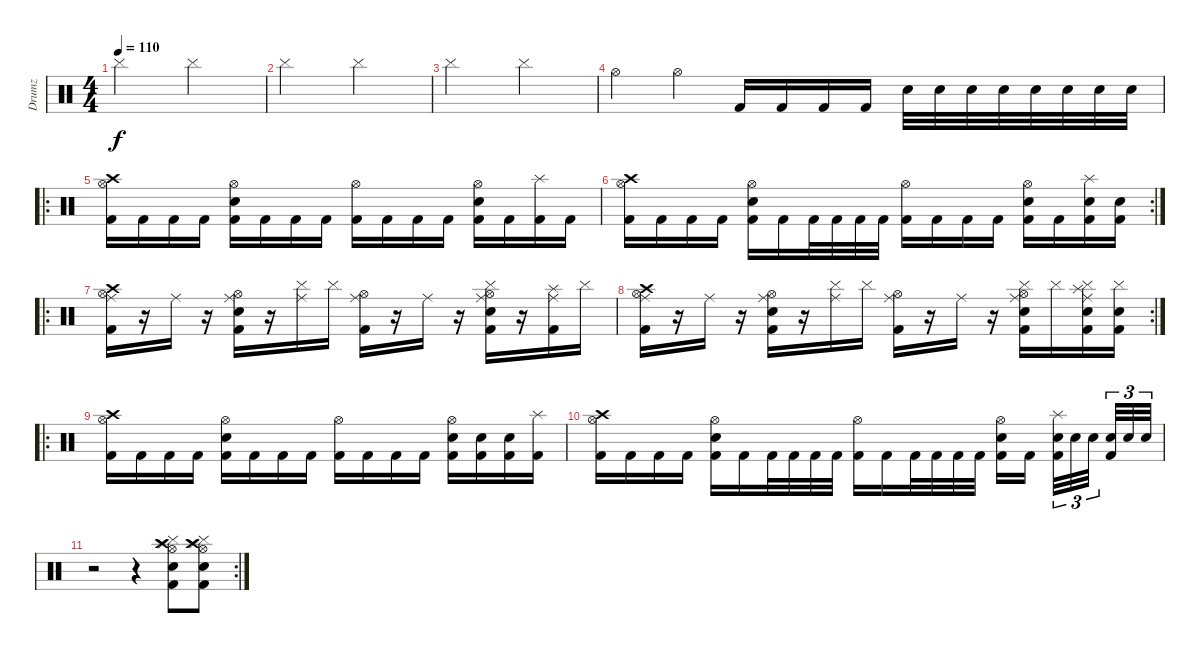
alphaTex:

\track ("Drumz" "Drumz") {instrument percussion}
\staff {score}
\articulation defaults
\ts (4 4)
\tempo 110
\clef neutral
\ks c "Cymbal (hit)".2{dy f} "Cymbal (hit)".2
|
"Cymbal (hit)".2 "Cymbal (hit)".2 |
"Cymbal (hit)".2 "Cymbal (hit)".2 |
"Hi-Hat (open)".4 "Hi-Hat (open)".4 "Kick (hit) 2".16 "Kick (hit) 2".16 "Kick (hit) 2".16 "Kick (hit) 2".16 "Snare (hit) 2".32 "Snare (hit) 2".32 "Snare (hit) 2".32 "Snare (hit) 2".32 "Snare (hit) 2".32 "Snare (hit) 2".32 "Snare (hit) 2".32 "Snare (hit) 2".32 |
\ro
("Crash high (hit)" "Hi-Hat (open)" "Kick (hit) 2").16 "Kick (hit) 2".16 "Kick (hit) 2".16 "Kick (hit) 2".16 ("Hi-Hat (open)" "Electric Snare (hit)" "Kick (hit) 2").16 "Kick (hit) 2".16 "Kick (hit) 2".16 "Kick (hit) 2".16 ("Hi-Hat (open)" "Kick (hit) 2").16 "Kick (hit) 2".16 "Kick (hit) 2".16 "Kick (hit) 2".16 ("Hi-Hat (open)" "Electric Snare (hit)" "Kick (hit) 2").16 "Kick (hit) 2".16 ("Splash (hit)" "Kick (hit) 2").16 "Kick (hit) 2".16 |
\rc 2
("Crash high (hit)" "Hi-Hat (open)" "Kick (hit) 2").16 "Kick (hit) 2".16 "Kick (hit) 2".16 "Kick (hit) 2".16 ("Hi-Hat (open)" "Electric Snare (hit)" "Kick (hit) 2").16 "Kick (hit) 2".16 "Kick (hit) 2".32 "Kick (hit) 2".32 "Kick (hit) 2".32 "Kick (hit) 2".32 ("Hi-Hat (open)" "Kick (hit) 2").16 "Kick (hit) 2".16 "Kick (hit) 2".16 "Kick (hit) 2".16 ("Hi-Hat (open)" "Electric Snare (hit)" "Kick (hit) 2").16 "Kick (hit) 2".16 ("Splash (hit)" "Electric Snare (hit)" "Kick (hit) 2").16 ("Electric Snare (hit)" "Kick (hit) 2").16 |
\ro
("Crash high (hit)" "Hi-Hat (open)" "Kick (hit) 2" "Ride (middle)").16 r.16 "Ride (middle)".16 r.16 ("Hi-Hat (open)" "Electric Snare (hit)" "Kick (hit) 2" "Ride (middle)").16 r.16 ("Cymbal (hit)" "Ride (middle)").16 "Cymbal (hit)".16 ("Hi-Hat (open)" "Kick (hit) 2" "Ride (middle)").16 r.16 "Ride (middle)".16 r.16 ("Cymbal (hit)" "Hi-Hat (open)" "Electric Snare (hit)" "Kick (hit) 2" "Ride (middle)").16 r.16 ("Splash (hit)" "Kick (hit) 2" "Ride (middle)").16 "Cymbal (hit)".16 |
\rc 2
("Crash high (hit)" "Hi-Hat (open)" "Kick (hit) 2" "Ride (middle)").16 r.16 "Ride (middle)".16 r.16 ("Hi-Hat (open)" "Electric Snare (hit)" "Kick (hit) 2" "Ride (middle)").16 r.16 ("Cymbal (hit)" "Ride (middle)").16 "Cymbal (hit)".16 ("Hi-Hat (open)" "Kick (hit) 2" "Ride (middle)").16 r.16 "Ride (middle)".16 r.16 ("Cymbal (hit)" "Hi-Hat (open)" "Electric Snare (hit)" "Kick (hit) 2" "Ride (middle)").16 "Cymbal (hit)".16 ("Cymbal (hit)" "Splash (hit)" "Electric Snare (hit)" "Kick (hit) 2" "Ride (middle)").16 ("Cymbal (hit)" "Electric Snare (hit)" "Kick (hit) 2").16 |
\ro
("Crash high (hit)" "Hi-Hat (open)" "Kick (hit) 2").16 "Kick (hit) 2".16 "Kick (hit) 2".16 "Kick (hit) 2".16 ("Hi-Hat (open)" "Electric Snare (hit)" "Kick (hit) 2").16 "Kick (hit) 2".16 "Kick (hit) 2".16 "Kick (hit) 2".16 ("Hi-Hat (open)" "Kick (hit) 2").16 "Kick (hit) 2".16 "Kick (hit) 2".16 "Kick (hit) 2".16 ("Hi-Hat (open)" "Electric Snare (hit)" "Kick (hit) 2").16 ("Electric Snare (hit)" "Kick (hit) 2").16 ("Electric Snare (hit)" "Kick (hit) 2").16 ("Splash (hit)" "Kick (hit) 2").16 |
("Crash high (hit)" "Hi-Hat (open)" "Kick (hit) 2").16 "Kick (hit) 2".16 "Kick (hit) 2".16 "Kick (hit) 2".16 ("Hi-Hat (open)" "Electric Snare (hit)" "Kick (hit) 2").16 "Kick (hit) 2".16 "Kick (hit) 2".32 "Kick (hit) 2".32 "Kick (hit) 2".32 "Kick (hit) 2".32 ("Hi-Hat (open)" "Kick (hit) 2").16 "Kick (hit) 2".16 "Kick (hit) 2".32 "Kick (hit) 2".32 "Kick (hit) 2".32 "Kick (hit) 2".32 ("Hi-Hat (open)" "Electric Snare (hit)" "Kick (hit) 2").16 "Kick (hit) 2".16 ("Splash (hit)" "Electric Snare (hit)" "Kick (hit) 2").32{tu (3 2)} "Electric Snare (hit)".32{tu (3 2)} "Electric Snare (hit)".32{tu (3 2)} ("Electric Snare (hit)" "Kick (hit) 2").32{tu (3 2)} "Electric Snare (hit)".32{tu (3 2)} "Electric Snare (hit)".32{tu (3 2)} |
\rc 2
r.2 r.4 ("Hi-Hat (open)" "Crash high (hit)" "Splash (hit)" "Cymbal (hit)" "Electric Snare (hit)" "Kick (hit) 2").8 ("Hi-Hat (open)" "Crash high (hit)" "Splash (hit)" "Cymbal (hit)" "Electric Snare (hit)" "Kick (hit) 2").8
